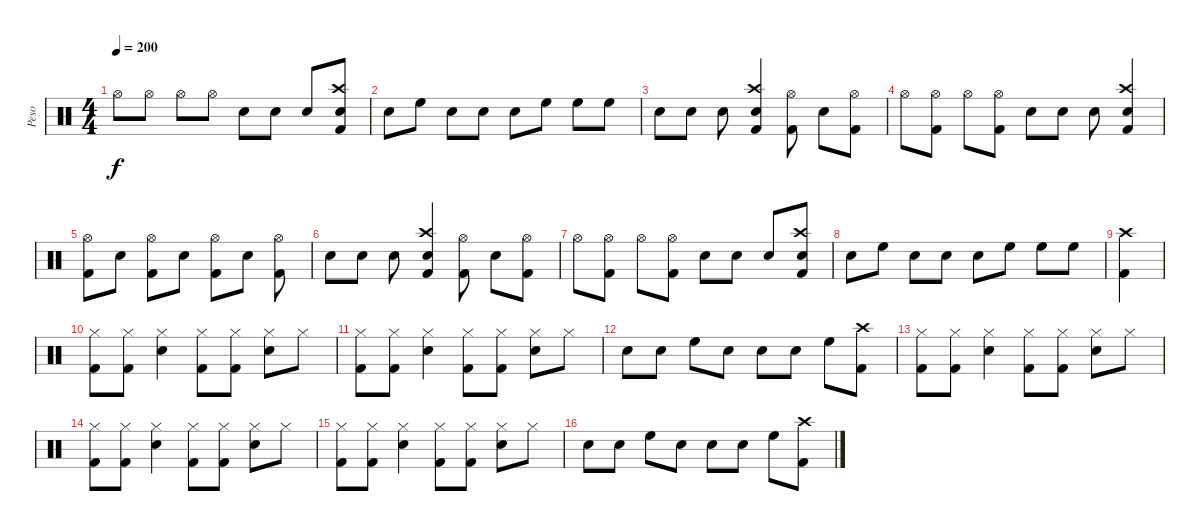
\track ("Peso" "Peso") {instrument percussion}
\staff {score}
\articulation defaults
\ts (4 4)
\tempo 200
\clef neutral
\ks c "Hi-Hat (open)"{x}.8{dy f} "Hi-Hat (open)".8 "Hi-Hat (open)"{x}.8 "Hi-Hat (open)".8 "Snare (hit) 2".8 "Snare (hit) 2".8 "Snare (hit) 2".8
("Crash high (hit)" "Snare (hit) 2"{x} "Kick (hit) 2").8 |
"Snare (hit) 2"{x}.8 "High Floor Tom (hit)"{x}.8 "Snare (hit) 2".8 "Snare (hit) 2".8 "Snare (hit) 2".8 "High Floor Tom (hit)".8 "High Floor Tom (hit)".8 "High Floor Tom (hit)".8 |
"Snare (hit) 2".8 "Snare (hit) 2".8 "Snare (hit) 2".8 ("Crash high (hit)" "Snare (hit) 2" "Kick (hit) 2").4 ("Hi-Hat (open)" "Kick (hit) 2").8 "Snare (hit)"{x}.8 ("Hi-Hat (open)" "Kick (hit) 2").8 |
"Hi-Hat (open)"{x}.8 ("Hi-Hat (open)" "Kick (hit) 2").8 "Hi-Hat (open)"{x}.8 ("Hi-Hat (open)" "Kick (hit) 2").8 "Snare (hit) 2".8 "Snare (hit) 2".8 "Snare (hit) 2".8 ("Crash high (hit)" "Snare (hit) 2" "Kick (hit) 2").4 |
("Hi-Hat (open)" "Kick (hit) 2").8 "Snare (hit)"{x}.8 ("Hi-Hat (open)" "Kick (hit) 2").8 "Snare (hit)"{x}.8 ("Hi-Hat (open)" "Kick (hit) 2").8 "Snare (hit)"{x}.8 ("Hi-Hat (open)" "Kick (hit) 2").8 |
"Snare (hit) 2".8 "Snare (hit) 2".8 "Snare (hit) 2".8 ("Crash high (hit)" "Snare (hit) 2" "Kick (hit) 2").4 ("Hi-Hat (open)" "Kick (hit) 2").8 "Snare (hit)"{x}.8 ("Hi-Hat (open)" "Kick (hit) 2").8 |
"Hi-Hat (open)"{x}.8 ("Hi-Hat (open)" "Kick (hit) 2").8 "Hi-Hat (open)"{x}.8 ("Hi-Hat (open)" "Kick (hit) 2").8 "Snare (hit) 2".8 "Snare (hit) 2".8 "Snare (hit) 2".8 ("Crash high (hit)" "Snare (hit) 2"{x} "Kick (hit) 2").8 |
"Snare (hit) 2"{x}.8 "High Floor Tom (hit)"{x}.8 "Snare (hit) 2".8 "Snare (hit) 2".8 "Snare (hit) 2".8 "High Floor Tom (hit)".8 "High Floor Tom (hit)".8 "High Floor Tom (hit)".8 |
("Crash high (hit)" "Kick (hit) 2").4 |
("Hi-Hat (closed)" "Kick (hit) 2").8 ("Hi-Hat (closed)" "Kick (hit) 2").8 ("Hi-Hat (closed)" "Snare (hit) 2").4 ("Hi-Hat (closed)" "Kick (hit) 2").8 ("Hi-Hat (closed)" "Kick (hit) 2").8 ("Hi-Hat (closed)" "Snare (hit) 2").8 "Hi-Hat (closed)".8 |
("Hi-Hat (closed)" "Kick (hit) 2").8 ("Hi-Hat (closed)" "Kick (hit) 2").8 ("Hi-Hat (closed)" "Snare (hit) 2").4 ("Hi-Hat (closed)" "Kick (hit) 2").8 ("Hi-Hat (closed)" "Kick (hit) 2").8 ("Hi-Hat (closed)" "Snare (hit) 2").8 "Hi-Hat (closed)".8 |
"Snare (hit) 2".8 "Snare (hit) 2".8 "High Floor Tom (hit)".8 "Snare (hit)"{x}.8 "Snare (hit) 2".8 "Snare (hit) 2".8 "High Floor Tom (hit)".8 ("Crash high (hit)" "Kick (hit) 2").8 |
("Hi-Hat (closed)" "Kick (hit) 2").8 ("Hi-Hat (closed)" "Kick (hit) 2").8 ("Hi-Hat (closed)" "Snare (hit) 2").4 ("Hi-Hat (closed)" "Kick (hit) 2").8 ("Hi-Hat (closed)" "Kick (hit) 2").8 ("Hi-Hat (closed)" "Snare (hit) 2").8 "Hi-Hat (closed)".8 |
("Hi-Hat (closed)" "Kick (hit) 2").8 ("Hi-Hat (closed)" "Kick (hit) 2").8 ("Hi-Hat (closed)" "Snare (hit) 2").4 ("Hi-Hat (closed)" "Kick (hit) 2").8 ("Hi-Hat (closed)" "Kick (hit) 2").8 ("Hi-Hat (closed)" "Snare (hit) 2").8 "Hi-Hat (closed)".8 |
("Hi-Hat (closed)" "Kick (hit) 2").8 ("Hi-Hat (closed)" "Kick (hit) 2").8 ("Hi-Hat (closed)" "Snare (hit) 2").4 ("Hi-Hat (closed)" "Kick (hit) 2").8 ("Hi-Hat (closed)" "Kick (hit) 2").8 ("Hi-Hat (closed)" "Snare (hit) 2").8 "Hi-Hat (closed)".8 |
"Snare (hit) 2".8 "Snare (hit) 2".8 "High Floor Tom (hit)".8 "Snare (hit)"{x}.8 "Snare (hit) 2".8 "Snare (hit) 2".8 "High Floor Tom (hit)".8 ("Crash high (hit)" "Kick (hit) 2").8
